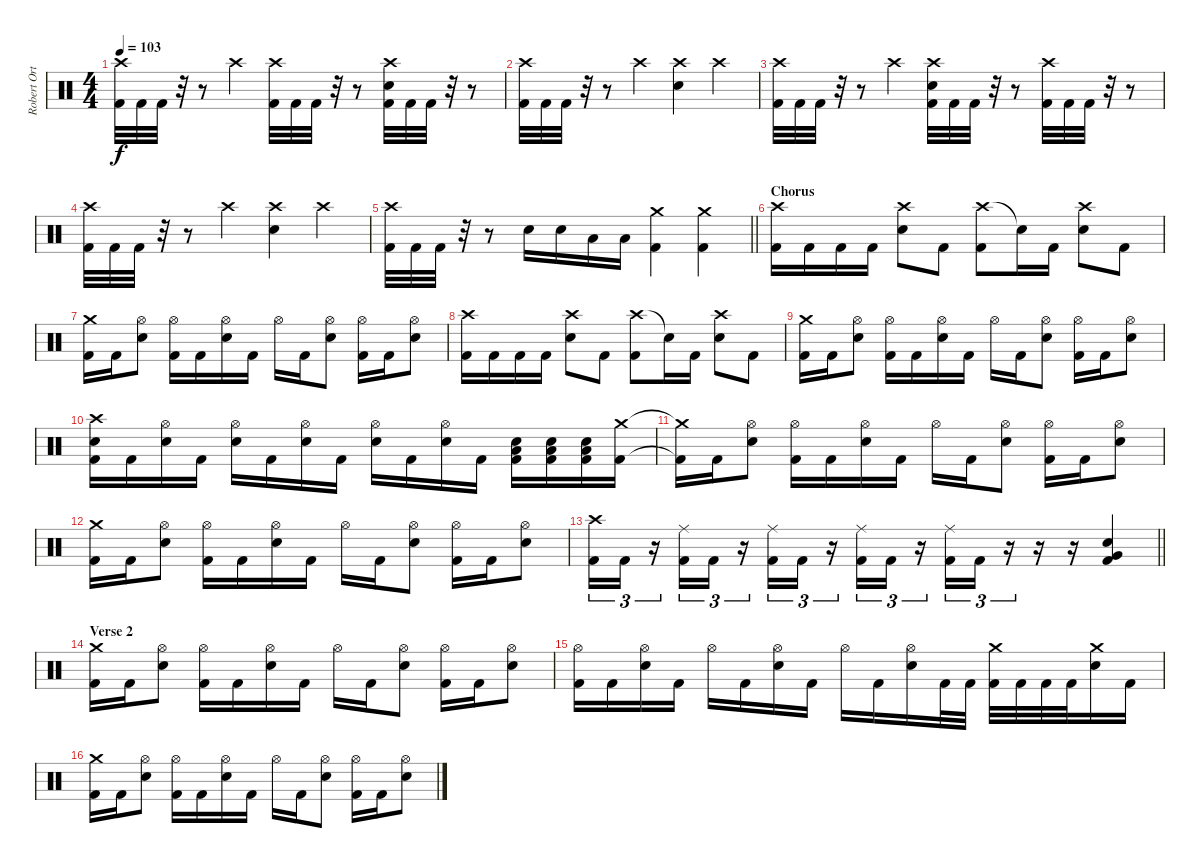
\track ("Robert Ortiz - Drums" "Robert Ort") {instrument percussion}
\staff {score}
\articulation defaults
\ts (4 4)
\tempo 103
\clef neutral
\ks c
("Crash high (hit)" "Kick (hit) 2").32{dy f} "Kick (hit) 2".32 "Kick (hit) 2".32 r.32 r.8 "Crash high (hit)".4 ("Crash high (hit)" "Kick (hit) 2").32 "Kick (hit) 2".32 "Kick (hit) 2".32 r.32 r.8 ("Crash high (hit)" "Electric Snare (hit)" "Kick (hit) 2").32 "Kick (hit) 2".32 "Kick (hit) 2".32 r.32 r.8 |
("Crash high (hit)" "Kick (hit) 2").32 "Kick (hit) 2".32 "Kick (hit) 2".32 r.32 r.8 "Crash high (hit)".4 ("Crash high (hit)" "Electric Snare (hit)").4 "Crash high (hit)".4 |
("Crash high (hit)" "Kick (hit) 2").32 "Kick (hit) 2".32 "Kick (hit) 2".32 r.32 r.8 "Crash high (hit)".4 ("Crash high (hit)" "Electric Snare (hit)" "Kick (hit) 2").32 "Kick (hit) 2".32 "Kick (hit) 2".32 r.32 r.8 ("Crash high (hit)" "Kick (hit) 2").32 "Kick (hit) 2".32 "Kick (hit) 2".32 r.32 r.8 |
("Crash high (hit)" "Kick (hit) 2").32 "Kick (hit) 2".32 "Kick (hit) 2".32 r.32 r.8 "Crash high (hit)".4 ("Crash high (hit)" "Electric Snare (hit)").4 "Crash high (hit)".4 |
\barLineRight lightlight
("Crash high (hit)" "Kick (hit) 2").32 "Kick (hit) 2".32 "Kick (hit) 2".32 r.32 r.8 "Electric Snare (hit)".16 "Electric Snare (hit)".16 "Low Tom (hit)".16 "Low Tom (hit)".16 ("Crash medium (hit)" "Kick (hit) 2").4 ("Crash medium (hit)" "Kick (hit) 2").4 |
\section ("" "Chorus")
("Crash high (hit)" "Kick (hit) 2").16 "Kick (hit) 2".16 "Kick (hit) 2".16 "Kick (hit) 2".16 ("Crash high (hit)" "Electric Snare (hit)").8 "Kick (hit) 2".8 ("Crash high (hit)" "Kick (hit) 2").8 "Snare (hit)"{t}.16 "Kick (hit) 2".16 ("Crash high (hit)" "Electric Snare (hit)").8 "Kick (hit) 2".8 |
("Crash medium (hit)" "Kick (hit) 2").16 "Kick (hit) 2".16 ("Hi-Hat (open)" "Electric Snare (hit)").8 ("Hi-Hat (open)" "Kick (hit) 2").16 "Kick (hit) 2".16 ("Hi-Hat (open)" "Electric Snare (hit)").16 "Kick (hit) 2".16 "Hi-Hat (open)".16 "Kick (hit) 2".16 ("Hi-Hat (open)" "Electric Snare (hit)").8 ("Hi-Hat (open)" "Kick (hit) 2").16 "Kick (hit) 2".16 ("Hi-Hat (open)" "Electric Snare (hit)").8 |
("Crash high (hit)" "Kick (hit) 2").16 "Kick (hit) 2".16 "Kick (hit) 2".16 "Kick (hit) 2".16 ("Crash high (hit)" "Electric Snare (hit)").8 "Kick (hit) 2".8 ("Crash high (hit)" "Kick (hit) 2").8 "Snare (hit)"{t}.16 "Kick (hit) 2".16 ("Crash high (hit)" "Electric Snare (hit)").8 "Kick (hit) 2".8 |
("Crash medium (hit)" "Kick (hit) 2").16 "Kick (hit) 2".16 ("Hi-Hat (open)" "Electric Snare (hit)").8 ("Hi-Hat (open)" "Kick (hit) 2").16 "Kick (hit) 2".16 ("Hi-Hat (open)" "Electric Snare (hit)").16 "Kick (hit) 2".16 "Hi-Hat (open)".16 "Kick (hit) 2".16 ("Hi-Hat (open)" "Electric Snare (hit)").8 ("Hi-Hat (open)" "Kick (hit) 2").16 "Kick (hit) 2".16 ("Hi-Hat (open)" "Electric Snare (hit)").8 |
("Crash high (hit)" "Electric Snare (hit)" "Kick (hit) 2").16 "Kick (hit) 2".16 ("Hi-Hat (open)" "Electric Snare (hit)").16 "Kick (hit) 2".16 ("Hi-Hat (open)" "Electric Snare (hit)").16 "Kick (hit) 2".16 ("Hi-Hat (open)" "Electric Snare (hit)").16 "Kick (hit) 2".16 ("Hi-Hat (open)" "Electric Snare (hit)").16 "Kick (hit) 2".16 ("Hi-Hat (open)" "Electric Snare (hit)").16 "Kick (hit) 2".16 ("Low Floor Tom (hit)" "Electric Snare (hit)" "Kick (hit) 2").16 ("Low Floor Tom (hit)" "Electric Snare (hit)" "Kick (hit) 2").16 ("Low Floor Tom (hit)" "Electric Snare (hit)" "Kick (hit) 2").16 ("Crash medium (hit)" "Kick (hit) 2").16 |
("Crash medium (hit)"{t} "Kick (hit) 2"{t}).16 "Kick (hit) 2".16 ("Hi-Hat (open)" "Electric Snare (hit)").8 ("Hi-Hat (open)" "Kick (hit) 2").16 "Kick (hit) 2".16 ("Hi-Hat (open)" "Electric Snare (hit)").16 "Kick (hit) 2".16 "Hi-Hat (open)".16 "Kick (hit) 2".16 ("Hi-Hat (open)" "Electric Snare (hit)").8 ("Hi-Hat (open)" "Kick (hit) 2").16 "Kick (hit) 2".16 ("Hi-Hat (open)" "Electric Snare (hit)").8 |
("Crash medium (hit)" "Kick (hit) 2").16 "Kick (hit) 2".16 ("Hi-Hat (open)" "Electric Snare (hit)").8 ("Hi-Hat (open)" "Kick (hit) 2").16 "Kick (hit) 2".16 ("Hi-Hat (open)" "Electric Snare (hit)").16 "Kick (hit) 2".16 "Hi-Hat (open)".16 "Kick (hit) 2".16 ("Hi-Hat (open)" "Electric Snare (hit)").8 ("Hi-Hat (open)" "Kick (hit) 2").16 "Kick (hit) 2".16 ("Hi-Hat (open)" "Electric Snare (hit)").8 |
\barLineRight lightlight
("Crash high (hit)" "Kick (hit) 2").16{tu (3 2)} "Kick (hit) 2".16{tu (3 2)} r.16{tu (3 2)} ("Ride (middle)" "Kick (hit) 2").16{tu (3 2)} "Kick (hit) 2".16{tu (3 2)} r.16{tu (3 2)} ("Ride (middle)" "Kick (hit) 2").16{tu (3 2)} "Kick (hit) 2".16{tu (3 2)} r.16{tu (3 2)} ("Ride (middle)" "Kick (hit) 2").16{tu (3 2)} "Kick (hit) 2".16{tu (3 2)} r.16{tu (3 2)} ("Ride (middle)" "Kick (hit) 2").16{tu (3 2)} "Kick (hit) 2".16{tu (3 2)} r.16{tu (3 2)} r.16 r.16 ("Very Low Tom (hit)" "Electric Snare (hit)" "Kick (hit) 2").4 |
\section ("" "Verse 2")
("Crash medium (hit)" "Kick (hit) 2").16 "Kick (hit) 2".16 ("Hi-Hat (open)" "Electric Snare (hit)").8 ("Hi-Hat (open)" "Kick (hit) 2").16 "Kick (hit) 2".16 ("Hi-Hat (open)" "Electric Snare (hit)").16 "Kick (hit) 2".16 "Hi-Hat (open)".16 "Kick (hit) 2".16 ("Hi-Hat (open)" "Electric Snare (hit)").8 ("Hi-Hat (open)" "Kick (hit) 2").16 "Kick (hit) 2".16 ("Hi-Hat (open)" "Electric Snare (hit)").8 |
("Hi-Hat (open)" "Kick (hit) 2").16 "Kick (hit) 2".16 ("Hi-Hat (open)" "Electric Snare (hit)").16 "Kick (hit) 2".16 "Hi-Hat (open)".16 "Kick (hit) 2".16 ("Hi-Hat (open)" "Electric Snare (hit)").16 "Kick (hit) 2".16 "Hi-Hat (open)".16 "Kick (hit) 2".16 ("Hi-Hat (open)" "Electric Snare (hit)").16 "Kick (hit) 2".32 "Kick (hit) 2".32 ("Crash medium (hit)" "Kick (hit) 2").32 "Kick (hit) 2".32 "Kick (hit) 2".32 "Kick (hit) 2".32 ("Crash medium (hit)" "Electric Snare (hit)").16 "Kick (hit) 2".16 |
("Crash medium (hit)" "Kick (hit) 2").16 "Kick (hit) 2".16 ("Hi-Hat (open)" "Electric Snare (hit)").8 ("Hi-Hat (open)" "Kick (hit) 2").16 "Kick (hit) 2".16 ("Hi-Hat (open)" "Electric Snare (hit)").16 "Kick (hit) 2".16 "Hi-Hat (open)".16 "Kick (hit) 2".16 ("Hi-Hat (open)" "Electric Snare (hit)").8 ("Hi-Hat (open)" "Kick (hit) 2").16 "Kick (hit) 2".16 ("Hi-Hat (open)" "Electric Snare (hit)").8
